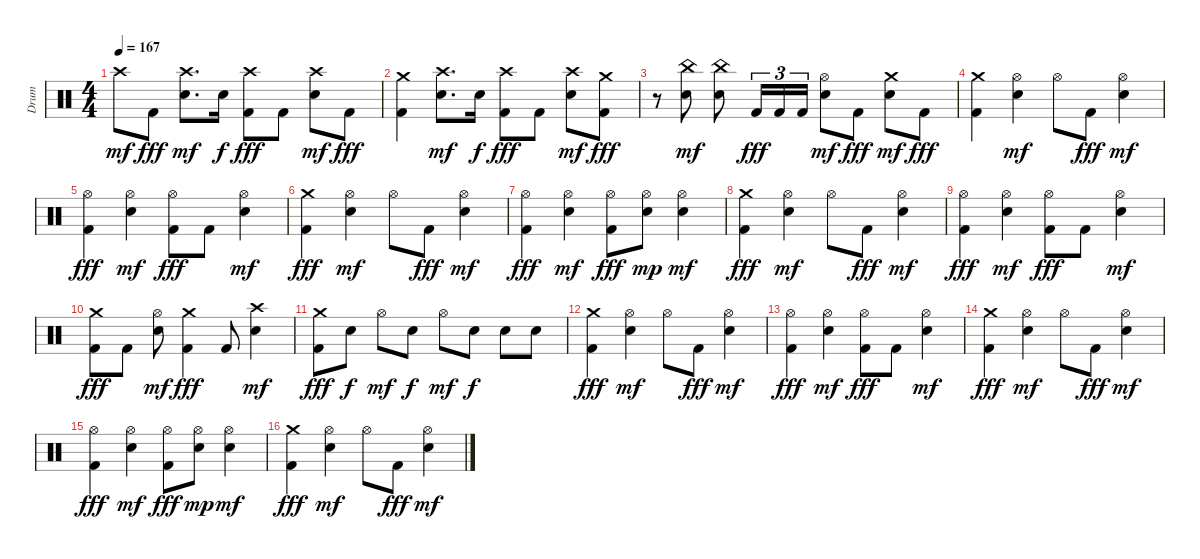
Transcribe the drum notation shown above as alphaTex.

\track ("Drum" "Drum") {instrument percussion}
\staff {score}
\articulation defaults
\ts (4 4)
\tempo 167
\clef neutral
\ks c "Crash high (hit)".8{dy mf} "Kick (hit) 2".8{dy fff}
("Crash high (hit)" "Electric Snare (hit)").8{d dy mf} "Electric Snare (hit)".16{dy f} ("Crash high (hit)" "Kick (hit) 2").8{dy fff} "Kick (hit) 2".8 ("Crash high (hit)" "Electric Snare (hit)").8{dy mf} "Kick (hit) 2".8{dy fff} |
("Crash medium (hit)" "Kick (hit) 2").4 ("Crash high (hit)" "Electric Snare (hit)").8{d dy mf} "Electric Snare (hit)".16{dy f} ("Crash high (hit)" "Kick (hit) 2").8{dy fff} "Kick (hit) 2".8 ("Crash high (hit)" "Electric Snare (hit)").8{dy mf} ("Crash medium (hit)" "Kick (hit) 2").8{dy fff} |
r.8 ("China (hit)" "Electric Snare (hit)").8{dy mf} ("China (hit)" "Electric Snare (hit)").8 "Kick (hit) 2".16{tu (3 2) dy fff} "Kick (hit) 2".16{tu (3 2)} "Kick (hit) 2".16{tu (3 2)} ("Hi-Hat (open)" "Electric Snare (hit)").8{dy mf} "Kick (hit) 2".8{dy fff} ("Crash medium (hit)" "Electric Snare (hit)").8{dy mf} "Kick (hit) 2".8{dy fff} |
("Crash medium (hit)" "Kick (hit) 2").4 ("Hi-Hat (open)" "Electric Snare (hit)").4{dy mf} "Hi-Hat (open)".8 "Kick (hit) 2".8{dy fff} ("Hi-Hat (open)" "Electric Snare (hit)").4{dy mf} |
("Hi-Hat (open)" "Kick (hit) 2").4{dy fff} ("Hi-Hat (open)" "Electric Snare (hit)").4{dy mf} ("Hi-Hat (open)" "Kick (hit) 2").8{dy fff} "Kick (hit) 2".8 ("Hi-Hat (open)" "Electric Snare (hit)").4{dy mf} |
("Crash medium (hit)" "Kick (hit) 2").4{dy fff} ("Hi-Hat (open)" "Electric Snare (hit)").4{dy mf} "Hi-Hat (open)".8 "Kick (hit) 2".8{dy fff} ("Hi-Hat (open)" "Electric Snare (hit)").4{dy mf} |
("Hi-Hat (open)" "Kick (hit) 2").4{dy fff} ("Hi-Hat (open)" "Electric Snare (hit)").4{dy mf} ("Hi-Hat (open)" "Kick (hit) 2").8{dy fff} ("Hi-Hat (open)" "Electric Snare (hit)").8{dy mp} ("Hi-Hat (open)" "Electric Snare (hit)").4{dy mf} |
("Crash medium (hit)" "Kick (hit) 2").4{dy fff} ("Hi-Hat (open)" "Electric Snare (hit)").4{dy mf} "Hi-Hat (open)".8 "Kick (hit) 2".8{dy fff} ("Hi-Hat (open)" "Electric Snare (hit)").4{dy mf} |
("Hi-Hat (open)" "Kick (hit) 2").4{dy fff} ("Hi-Hat (open)" "Electric Snare (hit)").4{dy mf} ("Hi-Hat (open)" "Kick (hit) 2").8{dy fff} "Kick (hit) 2".8 ("Hi-Hat (open)" "Electric Snare (hit)").4{dy mf} |
("Crash medium (hit)" "Kick (hit) 2").8{dy fff} "Kick (hit) 2".8 ("Hi-Hat (open)" "Electric Snare (hit)").8{dy mf} ("Crash medium (hit)" "Kick (hit) 2").4{dy fff} "Kick (hit) 2".8 ("Crash high (hit)" "Electric Snare (hit)").4{dy mf} |
("Crash medium (hit)" "Kick (hit) 2").8{dy fff} "Electric Snare (hit)".8{dy f} "Hi-Hat (open)".8{dy mf} "Electric Snare (hit)".8{dy f} "Hi-Hat (open)".8{dy mf} "Electric Snare (hit)".8{dy f} "Electric Snare (hit)".8 "Electric Snare (hit)".8 |
("Crash medium (hit)" "Kick (hit) 2").4{dy fff} ("Hi-Hat (open)" "Electric Snare (hit)").4{dy mf} "Hi-Hat (open)".8 "Kick (hit) 2".8{dy fff} ("Hi-Hat (open)" "Electric Snare (hit)").4{dy mf} |
("Hi-Hat (open)" "Kick (hit) 2").4{dy fff} ("Hi-Hat (open)" "Electric Snare (hit)").4{dy mf} ("Hi-Hat (open)" "Kick (hit) 2").8{dy fff} "Kick (hit) 2".8 ("Hi-Hat (open)" "Electric Snare (hit)").4{dy mf} |
("Crash medium (hit)" "Kick (hit) 2").4{dy fff} ("Hi-Hat (open)" "Electric Snare (hit)").4{dy mf} "Hi-Hat (open)".8 "Kick (hit) 2".8{dy fff} ("Hi-Hat (open)" "Electric Snare (hit)").4{dy mf} |
("Hi-Hat (open)" "Kick (hit) 2").4{dy fff} ("Hi-Hat (open)" "Electric Snare (hit)").4{dy mf} ("Hi-Hat (open)" "Kick (hit) 2").8{dy fff} ("Hi-Hat (open)" "Electric Snare (hit)").8{dy mp} ("Hi-Hat (open)" "Electric Snare (hit)").4{dy mf} |
("Crash medium (hit)" "Kick (hit) 2").4{dy fff} ("Hi-Hat (open)" "Electric Snare (hit)").4{dy mf} "Hi-Hat (open)".8 "Kick (hit) 2".8{dy fff} ("Hi-Hat (open)" "Electric Snare (hit)").4{dy mf}
